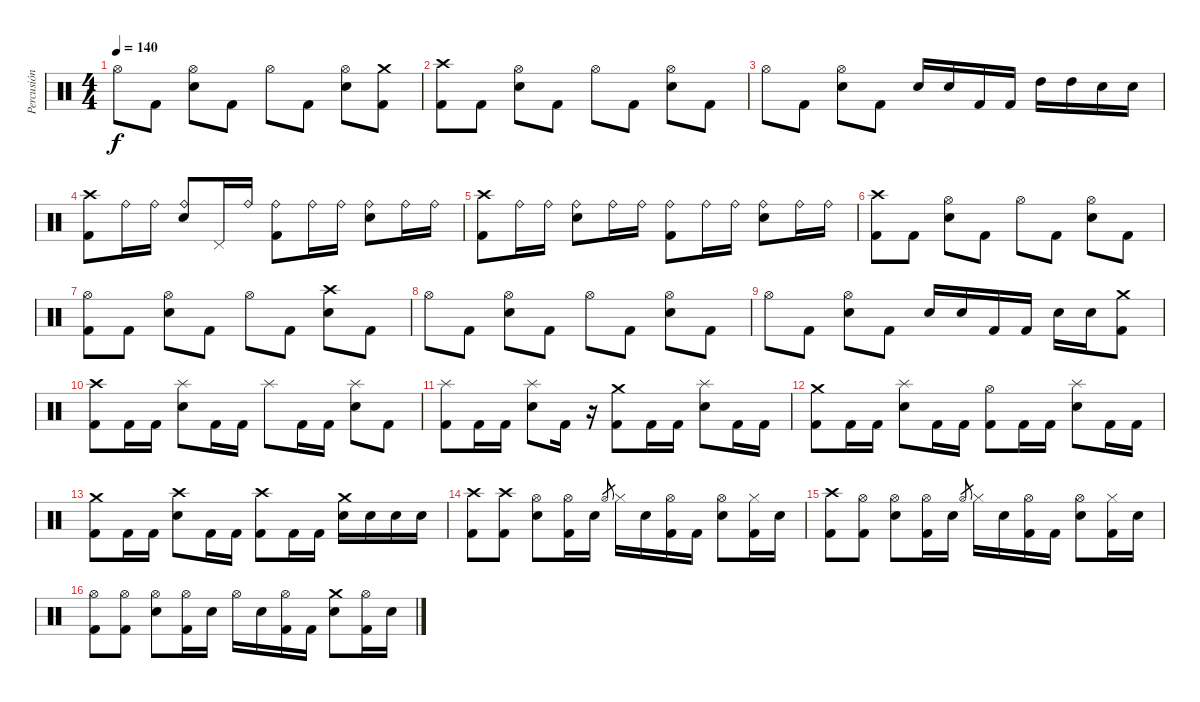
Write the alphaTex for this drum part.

\track ("Percusión" "Percusión") {instrument percussion}
\staff {score}
\articulation defaults
\ts (4 4)
\tempo 140
\clef neutral
\ks c "Hi-Hat (open)".8{dy f} "Kick (hit) 2".8
("Hi-Hat (open)" "Snare (hit) 2").8 "Kick (hit) 2".8 "Hi-Hat (open)".8 "Kick (hit) 2".8 ("Hi-Hat (open)" "Snare (hit) 2").8 ("Crash medium (hit)" "Kick (hit) 2").8 |
("Crash high (hit)" "Kick (hit) 2").8 "Kick (hit) 2".8 ("Hi-Hat (open)" "Snare (hit) 2").8 "Kick (hit) 2".8 "Hi-Hat (open)".8 "Kick (hit) 2".8 ("Hi-Hat (open)" "Snare (hit) 2").8 "Kick (hit) 2".8 |
"Hi-Hat (open)".8 "Kick (hit) 2".8 ("Hi-Hat (open)" "Snare (hit) 2").8 "Kick (hit) 2".8 "Snare (hit) 2".16 "Snare (hit) 2".16 "Kick (hit) 2".16 "Kick (hit) 2".16 "High Tom (hit)".16 "High Tom (hit)".16 "Snare (hit) 2".16 "Snare (hit) 2".16 |
("Crash high (hit)" "Kick (hit) 2").8 "Ride (bell)".16 "Ride (bell)".16 ("Ride (bell)" "Snare (hit) 2").8 "Pedal Hi-Hat (hit)".16 "Ride (bell)".16 ("Ride (bell)" "Kick (hit) 2").8 "Ride (bell)".16 "Ride (bell)".16 ("Ride (bell)" "Snare (hit) 2").8 "Ride (bell)".16 "Ride (bell)".16 |
("Crash high (hit)" "Kick (hit) 2").8 "Ride (bell)".16 "Ride (bell)".16 ("Ride (bell)" "Snare (hit) 2").8 "Ride (bell)".16 "Ride (bell)".16 ("Ride (bell)" "Kick (hit) 2").8 "Ride (bell)".16 "Ride (bell)".16 ("Ride (bell)" "Snare (hit) 2").8 "Ride (bell)".16 "Ride (bell)".16 |
("Crash high (hit)" "Kick (hit) 2").8 "Kick (hit) 2".8 ("Hi-Hat (open)" "Snare (hit) 2").8 "Kick (hit) 2".8 "Hi-Hat (open)".8 "Kick (hit) 2".8 ("Hi-Hat (open)" "Snare (hit) 2").8 "Kick (hit) 2".8 |
("Hi-Hat (open)" "Kick (hit) 2").8 "Kick (hit) 2".8 ("Hi-Hat (open)" "Snare (hit) 2").8 "Kick (hit) 2".8 "Hi-Hat (open)".8 "Kick (hit) 2".8 ("Crash high (hit)" "Snare (hit) 2").8 "Kick (hit) 2".8 |
"Hi-Hat (open)".8 "Kick (hit) 2".8 ("Hi-Hat (open)" "Snare (hit) 2").8 "Kick (hit) 2".8 "Hi-Hat (open)".8 "Kick (hit) 2".8 ("Hi-Hat (open)" "Snare (hit) 2").8 "Kick (hit) 2".8 |
"Hi-Hat (open)".8 "Kick (hit) 2".8 ("Hi-Hat (open)" "Snare (hit) 2").8 "Kick (hit) 2".8 "Snare (hit) 2".16 "Snare (hit) 2".16 "Kick (hit) 2".16 "Kick (hit) 2".16 "Snare (hit) 2".16 "Snare (hit) 2".16 ("Crash medium (hit)" "Kick (hit) 2").8 |
("Crash high (hit)" "Kick (hit) 2").8 "Kick (hit) 2".16 "Kick (hit) 2".16 ("Splash (hit)" "Snare (hit) 2").8 "Kick (hit) 2".16 "Kick (hit) 2".16 "Splash (hit)".8 "Kick (hit) 2".16 "Kick (hit) 2".16 ("Splash (hit)" "Snare (hit) 2").8 "Kick (hit) 2".8 |
("Splash (hit)" "Kick (hit) 2").8 "Kick (hit) 2".16 "Kick (hit) 2".16 ("Splash (hit)" "Snare (hit) 2").8 "Kick (hit) 2".16 r.16 ("Crash medium (hit)" "Kick (hit) 2").8 "Kick (hit) 2".16 "Kick (hit) 2".16 ("Splash (hit)" "Snare (hit) 2").8 "Kick (hit) 2".16 "Kick (hit) 2".16 |
("Crash medium (hit)" "Kick (hit) 2").8 "Kick (hit) 2".16 "Kick (hit) 2".16 ("Splash (hit)" "Snare (hit) 2").8 "Kick (hit) 2".16 "Kick (hit) 2".16 ("Hi-Hat (open)" "Kick (hit) 2").8 "Kick (hit) 2".16 "Kick (hit) 2".16 ("Splash (hit)" "Snare (hit) 2").8 "Kick (hit) 2".16 "Kick (hit) 2".16 |
("Crash medium (hit)" "Kick (hit) 2").8 "Kick (hit) 2".16 "Kick (hit) 2".16 ("Crash high (hit)" "Snare (hit) 2").8 "Kick (hit) 2".16 "Kick (hit) 2".16 ("Crash high (hit)" "Kick (hit) 2").8 "Kick (hit) 2".16 "Kick (hit) 2".16 ("Crash medium (hit)" "Snare (hit) 2").16 "Snare (hit) 2".16 "Snare (hit) 2".16 "Snare (hit) 2".16 |
("Crash high (hit)" "Kick (hit) 2").8 ("Crash high (hit)" "Kick (hit) 2").8 ("Hi-Hat (open)" "Snare (hit) 2").8 ("Hi-Hat (open)" "Kick (hit) 2").16 "Snare (hit) 2".16 "Hi-Hat (open)".8{gr} "Hi-Hat (closed)".16 "Snare (hit) 2".16 ("Hi-Hat (open)" "Kick (hit) 2").16 "Kick (hit) 2".16 ("Hi-Hat (open)" "Snare (hit) 2").8 ("Hi-Hat (closed)" "Kick (hit) 2").16 "Snare (hit) 2".16 |
("Crash high (hit)" "Kick (hit) 2").8 ("Hi-Hat (open)" "Kick (hit) 2").8 ("Hi-Hat (open)" "Snare (hit) 2").8 ("Hi-Hat (open)" "Kick (hit) 2").16 "Snare (hit) 2".16 "Hi-Hat (open)".8{gr} "Hi-Hat (closed)".16 "Snare (hit) 2".16 ("Hi-Hat (open)" "Kick (hit) 2").16 "Kick (hit) 2".16 ("Hi-Hat (open)" "Snare (hit) 2").8 ("Hi-Hat (closed)" "Kick (hit) 2").16 "Snare (hit) 2".16 |
("Hi-Hat (open)" "Kick (hit) 2").8 ("Hi-Hat (open)" "Kick (hit) 2").8 ("Hi-Hat (open)" "Snare (hit) 2").8 ("Hi-Hat (open)" "Kick (hit) 2").16 "Snare (hit) 2".16 "Hi-Hat (open)".16 "Snare (hit) 2".16 ("Hi-Hat (open)" "Kick (hit) 2").16 "Kick (hit) 2".16 ("Crash medium (hit)" "Snare (hit) 2").8 ("Hi-Hat (open)" "Kick (hit) 2").16 "Snare (hit) 2".16
